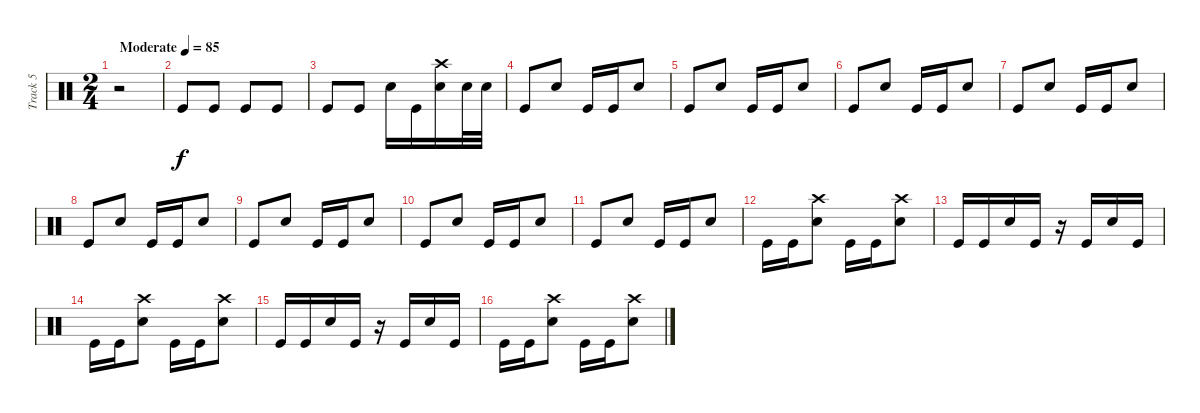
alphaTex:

\track ("Track 5" "Track 5") {instrument percussion}
\staff {score}
\articulation defaults
\ts (2 4)
\tempo (85 "Moderate")
\clef neutral
\ks c
r.2{dy f} |
"Kick (hit)".8 "Kick (hit)".8 "Kick (hit)".8 "Kick (hit)".8 |
"Kick (hit)".8 "Kick (hit)".8 "Electric Snare (hit)".16 "Kick (hit)".16 ("Crash high (hit)" "Electric Snare (hit)").16 "Electric Snare (hit)".32 "Electric Snare (hit)".32 |
"Kick (hit)".8 "Electric Snare (hit)".8 "Kick (hit)".16 "Kick (hit)".16 "Electric Snare (hit)".8 |
"Kick (hit)".8 "Electric Snare (hit)".8 "Kick (hit)".16 "Kick (hit)".16 "Electric Snare (hit)".8 |
"Kick (hit)".8 "Electric Snare (hit)".8 "Kick (hit)".16 "Kick (hit)".16 "Electric Snare (hit)".8 |
"Kick (hit)".8 "Electric Snare (hit)".8 "Kick (hit)".16 "Kick (hit)".16 "Electric Snare (hit)".8 |
"Kick (hit)".8 "Electric Snare (hit)".8 "Kick (hit)".16 "Kick (hit)".16 "Electric Snare (hit)".8 |
"Kick (hit)".8 "Electric Snare (hit)".8 "Kick (hit)".16 "Kick (hit)".16 "Electric Snare (hit)".8 |
"Kick (hit)".8 "Electric Snare (hit)".8 "Kick (hit)".16 "Kick (hit)".16 "Electric Snare (hit)".8 |
"Kick (hit)".8 "Electric Snare (hit)".8 "Kick (hit)".16 "Kick (hit)".16 "Electric Snare (hit)".8 |
"Kick (hit)".16 "Kick (hit)".16 ("Electric Snare (hit)" "Crash high (hit)").8 "Kick (hit)".16 "Kick (hit)".16 ("Electric Snare (hit)" "Crash high (hit)").8 |
"Kick (hit)".16 "Kick (hit)".16 "Electric Snare (hit)".16 "Kick (hit)".16 r.16 "Kick (hit)".16 "Electric Snare (hit)".16 "Kick (hit)".16 |
"Kick (hit)".16 "Kick (hit)".16 ("Electric Snare (hit)" "Crash high (hit)").8 "Kick (hit)".16 "Kick (hit)".16 ("Electric Snare (hit)" "Crash high (hit)").8 |
"Kick (hit)".16 "Kick (hit)".16 "Electric Snare (hit)".16 "Kick (hit)".16 r.16 "Kick (hit)".16 "Electric Snare (hit)".16 "Kick (hit)".16 |
"Kick (hit)".16 "Kick (hit)".16 ("Electric Snare (hit)" "Crash high (hit)").8 "Kick (hit)".16 "Kick (hit)".16 ("Electric Snare (hit)" "Crash high (hit)").8
